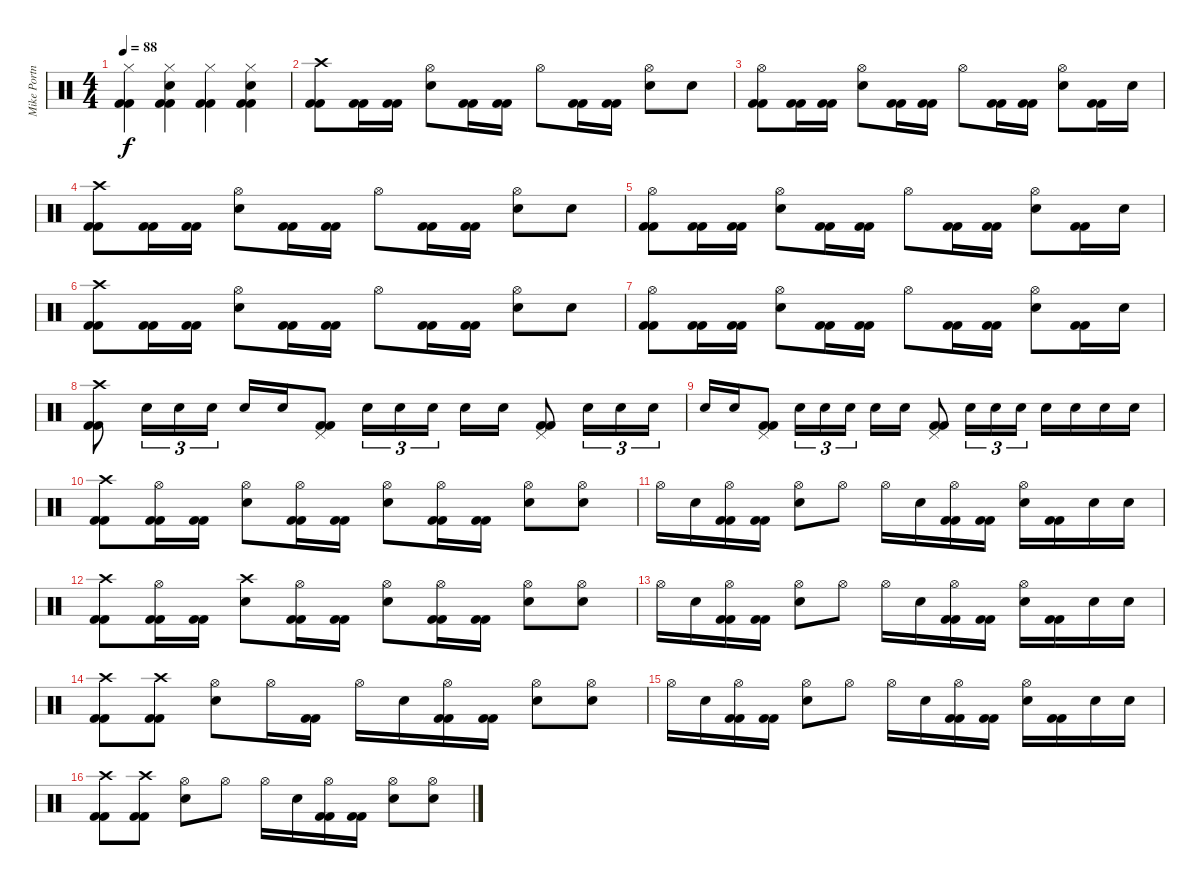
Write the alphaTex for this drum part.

\track ("Mike Portnoy" "Mike Portn") {instrument percussion}
\staff {score}
\articulation defaults
\ts (4 4)
\tempo 88
\clef neutral
\ks c
("Hi-Hat (closed)" "Kick (hit) 2" "Kick (hit) 2").4{dy f} ("Hi-Hat (closed)" "Snare (hit) 2" "Kick (hit) 2" "Kick (hit) 2").4 ("Hi-Hat (closed)" "Kick (hit) 2" "Kick (hit) 2").4 ("Hi-Hat (closed)" "Snare (hit) 2" "Kick (hit) 2" "Kick (hit) 2").4 |
("Crash high (hit)" "Kick (hit) 2" "Kick (hit) 2").8 ("Kick (hit) 2" "Kick (hit) 2").16 ("Kick (hit) 2" "Kick (hit) 2").16 ("Hi-Hat (open)" "Snare (hit) 2").8 ("Kick (hit) 2" "Kick (hit) 2").16 ("Kick (hit) 2" "Kick (hit) 2").16 "Hi-Hat (open)".8 ("Kick (hit) 2" "Kick (hit) 2").16 ("Kick (hit) 2" "Kick (hit) 2").16 ("Hi-Hat (open)" "Snare (hit) 2").8 "Snare (hit) 2".8 |
("Hi-Hat (open)" "Kick (hit) 2" "Kick (hit) 2").8 ("Kick (hit) 2" "Kick (hit) 2").16 ("Kick (hit) 2" "Kick (hit) 2").16 ("Hi-Hat (open)" "Snare (hit) 2").8 ("Kick (hit) 2" "Kick (hit) 2").16 ("Kick (hit) 2" "Kick (hit) 2").16 "Hi-Hat (open)".8 ("Kick (hit) 2" "Kick (hit) 2").16 ("Kick (hit) 2" "Kick (hit) 2").16 ("Hi-Hat (open)" "Snare (hit) 2").8 ("Kick (hit) 2" "Kick (hit) 2").16 "Snare (hit) 2".16 |
("Crash high (hit)" "Kick (hit) 2" "Kick (hit) 2").8 ("Kick (hit) 2" "Kick (hit) 2").16 ("Kick (hit) 2" "Kick (hit) 2").16 ("Hi-Hat (open)" "Snare (hit) 2").8 ("Kick (hit) 2" "Kick (hit) 2").16 ("Kick (hit) 2" "Kick (hit) 2").16 "Hi-Hat (open)".8 ("Kick (hit) 2" "Kick (hit) 2").16 ("Kick (hit) 2" "Kick (hit) 2").16 ("Hi-Hat (open)" "Snare (hit) 2").8 "Snare (hit) 2".8 |
("Hi-Hat (open)" "Kick (hit) 2" "Kick (hit) 2").8 ("Kick (hit) 2" "Kick (hit) 2").16 ("Kick (hit) 2" "Kick (hit) 2").16 ("Hi-Hat (open)" "Snare (hit) 2").8 ("Kick (hit) 2" "Kick (hit) 2").16 ("Kick (hit) 2" "Kick (hit) 2").16 "Hi-Hat (open)".8 ("Kick (hit) 2" "Kick (hit) 2").16 ("Kick (hit) 2" "Kick (hit) 2").16 ("Hi-Hat (open)" "Snare (hit) 2").8 ("Kick (hit) 2" "Kick (hit) 2").16 "Snare (hit) 2".16 |
("Crash high (hit)" "Kick (hit) 2" "Kick (hit) 2").8 ("Kick (hit) 2" "Kick (hit) 2").16 ("Kick (hit) 2" "Kick (hit) 2").16 ("Hi-Hat (open)" "Snare (hit) 2").8 ("Kick (hit) 2" "Kick (hit) 2").16 ("Kick (hit) 2" "Kick (hit) 2").16 "Hi-Hat (open)".8 ("Kick (hit) 2" "Kick (hit) 2").16 ("Kick (hit) 2" "Kick (hit) 2").16 ("Hi-Hat (open)" "Snare (hit) 2").8 "Snare (hit) 2".8 |
("Hi-Hat (open)" "Kick (hit) 2" "Kick (hit) 2").8 ("Kick (hit) 2" "Kick (hit) 2").16 ("Kick (hit) 2" "Kick (hit) 2").16 ("Hi-Hat (open)" "Snare (hit) 2").8 ("Kick (hit) 2" "Kick (hit) 2").16 ("Kick (hit) 2" "Kick (hit) 2").16 "Hi-Hat (open)".8 ("Kick (hit) 2" "Kick (hit) 2").16 ("Kick (hit) 2" "Kick (hit) 2").16 ("Hi-Hat (open)" "Snare (hit) 2").8 ("Kick (hit) 2" "Kick (hit) 2").16 "Snare (hit) 2".16 |
("Crash high (hit)" "Kick (hit) 2" "Kick (hit) 2").8 "Snare (hit) 2".16{tu (3 2)} "Snare (hit) 2".16{tu (3 2)} "Snare (hit) 2".16{tu (3 2)} "Snare (hit) 2".16 "Snare (hit) 2".16 ("Pedal Hi-Hat (hit)" "Kick (hit) 2" "Kick (hit) 2").8 "Snare (hit) 2".16{tu (3 2)} "Snare (hit) 2".16{tu (3 2)} "Snare (hit) 2".16{tu (3 2)} "Snare (hit) 2".16 "Snare (hit) 2".16 ("Pedal Hi-Hat (hit)" "Kick (hit) 2" "Kick (hit) 2").8 "Snare (hit) 2".16{tu (3 2)} "Snare (hit) 2".16{tu (3 2)} "Snare (hit) 2".16{tu (3 2)} |
"Snare (hit) 2".16 "Snare (hit) 2".16 ("Pedal Hi-Hat (hit)" "Kick (hit) 2" "Kick (hit) 2").8 "Snare (hit) 2".16{tu (3 2)} "Snare (hit) 2".16{tu (3 2)} "Snare (hit) 2".16{tu (3 2)} "Snare (hit) 2".16 "Snare (hit) 2".16 ("Pedal Hi-Hat (hit)" "Kick (hit) 2" "Kick (hit) 2").8 "Snare (hit) 2".16{tu (3 2)} "Snare (hit) 2".16{tu (3 2)} "Snare (hit) 2".16{tu (3 2)} "Snare (hit) 2".16 "Snare (hit) 2".16 "Snare (hit) 2".16 "Snare (hit) 2".16 |
("Crash high (hit)" "Kick (hit) 2" "Kick (hit) 2").8 ("Hi-Hat (open)" "Kick (hit) 2" "Kick (hit) 2").16 ("Kick (hit) 2" "Kick (hit) 2").16 ("Hi-Hat (open)" "Snare (hit) 2").8 ("Hi-Hat (open)" "Kick (hit) 2" "Kick (hit) 2").16 ("Kick (hit) 2" "Kick (hit) 2").16 ("Hi-Hat (open)" "Snare (hit) 2").8 ("Hi-Hat (open)" "Kick (hit) 2" "Kick (hit) 2").16 ("Kick (hit) 2" "Kick (hit) 2").16 ("Hi-Hat (open)" "Snare (hit) 2").8 ("Hi-Hat (open)" "Snare (hit) 2").8 |
"Hi-Hat (open)".16 "Snare (hit) 2".16 ("Hi-Hat (open)" "Kick (hit) 2" "Kick (hit) 2").16 ("Kick (hit) 2" "Kick (hit) 2").16 ("Hi-Hat (open)" "Snare (hit) 2").8 "Hi-Hat (open)".8 "Hi-Hat (open)".16 "Snare (hit) 2".16 ("Hi-Hat (open)" "Kick (hit) 2" "Kick (hit) 2").16 ("Kick (hit) 2" "Kick (hit) 2").16 ("Hi-Hat (open)" "Snare (hit) 2").16 ("Kick (hit) 2" "Kick (hit) 2").16 "Snare (hit) 2".16 "Snare (hit) 2".16 |
("Crash high (hit)" "Kick (hit) 2" "Kick (hit) 2").8 ("Hi-Hat (open)" "Kick (hit) 2" "Kick (hit) 2").16 ("Kick (hit) 2" "Kick (hit) 2").16 ("Crash high (hit)" "Snare (hit) 2").8 ("Hi-Hat (open)" "Kick (hit) 2" "Kick (hit) 2").16 ("Kick (hit) 2" "Kick (hit) 2").16 ("Hi-Hat (open)" "Snare (hit) 2").8 ("Hi-Hat (open)" "Kick (hit) 2" "Kick (hit) 2").16 ("Kick (hit) 2" "Kick (hit) 2").16 ("Hi-Hat (open)" "Snare (hit) 2").8 ("Hi-Hat (open)" "Snare (hit) 2").8 |
"Hi-Hat (open)".16 "Snare (hit) 2".16 ("Hi-Hat (open)" "Kick (hit) 2" "Kick (hit) 2").16 ("Kick (hit) 2" "Kick (hit) 2").16 ("Hi-Hat (open)" "Snare (hit) 2").8 "Hi-Hat (open)".8 "Hi-Hat (open)".16 "Snare (hit) 2".16 ("Hi-Hat (open)" "Kick (hit) 2" "Kick (hit) 2").16 ("Kick (hit) 2" "Kick (hit) 2").16 ("Hi-Hat (open)" "Snare (hit) 2").16 ("Kick (hit) 2" "Kick (hit) 2").16 "Snare (hit) 2".16 "Snare (hit) 2".16 |
("Crash high (hit)" "Kick (hit) 2" "Kick (hit) 2").8 ("Crash high (hit)" "Kick (hit) 2" "Kick (hit) 2").8 ("Hi-Hat (open)" "Snare (hit) 2").8 "Hi-Hat (open)".16 ("Kick (hit) 2" "Kick (hit) 2").16 "Hi-Hat (open)".16 "Snare (hit) 2".16 ("Hi-Hat (open)" "Kick (hit) 2" "Kick (hit) 2").16 ("Kick (hit) 2" "Kick (hit) 2").16 ("Hi-Hat (open)" "Snare (hit) 2").8 ("Hi-Hat (open)" "Snare (hit) 2").8 |
"Hi-Hat (open)".16 "Snare (hit) 2".16 ("Hi-Hat (open)" "Kick (hit) 2" "Kick (hit) 2").16 ("Kick (hit) 2" "Kick (hit) 2").16 ("Hi-Hat (open)" "Snare (hit) 2").8 "Hi-Hat (open)".8 "Hi-Hat (open)".16 "Snare (hit) 2".16 ("Hi-Hat (open)" "Kick (hit) 2" "Kick (hit) 2").16 ("Kick (hit) 2" "Kick (hit) 2").16 ("Hi-Hat (open)" "Snare (hit) 2").16 ("Kick (hit) 2" "Kick (hit) 2").16 "Snare (hit) 2".16 "Snare (hit) 2".16 |
("Crash high (hit)" "Kick (hit) 2" "Kick (hit) 2").8 ("Crash high (hit)" "Kick (hit) 2" "Kick (hit) 2").8 ("Hi-Hat (open)" "Snare (hit) 2").8 "Hi-Hat (open)".8 "Hi-Hat (open)".16 "Snare (hit) 2".16 ("Hi-Hat (open)" "Kick (hit) 2" "Kick (hit) 2").16 ("Kick (hit) 2" "Kick (hit) 2").16 ("Hi-Hat (open)" "Snare (hit) 2").8 ("Hi-Hat (open)" "Snare (hit) 2").8
